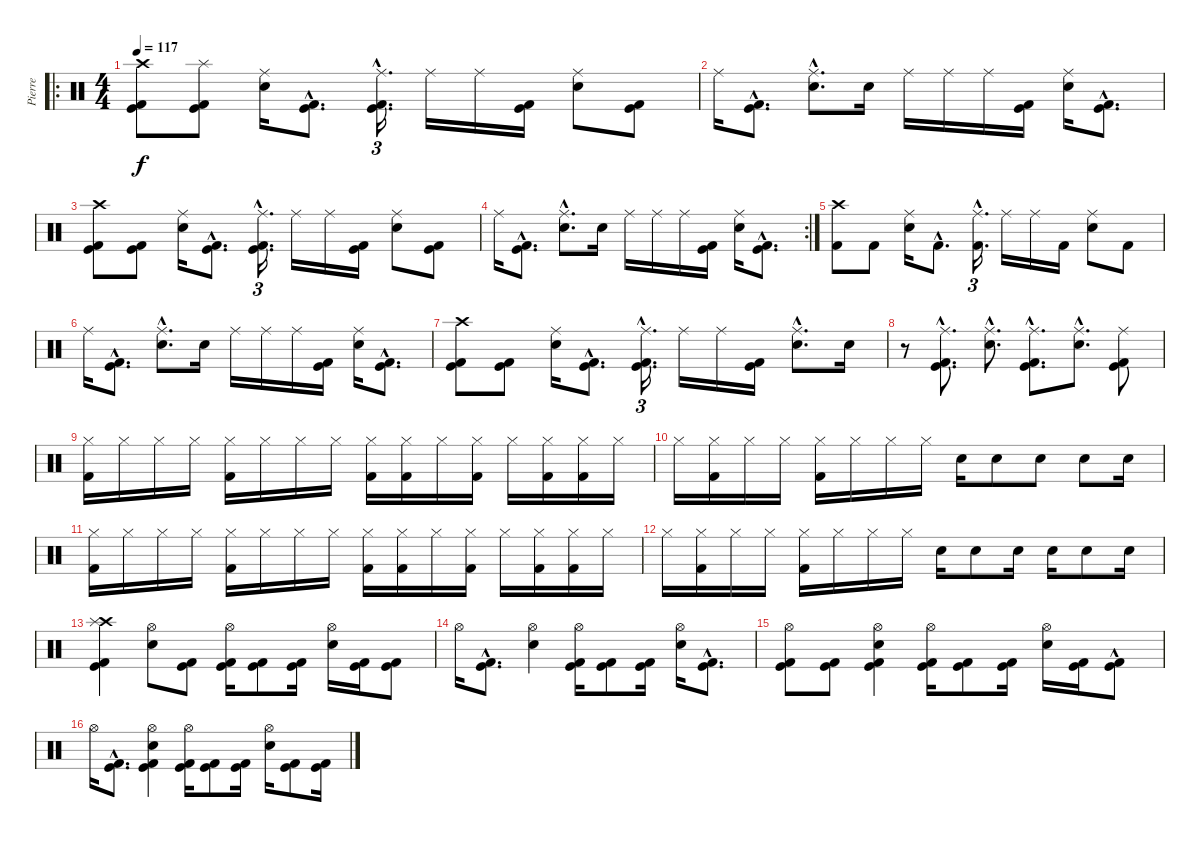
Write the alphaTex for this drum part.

\track ("Pierre" "Pierre") {instrument percussion}
\staff {score}
\articulation defaults
\ro
\ts (4 4)
\tempo 117
\clef neutral
\ks c
("Crash high (hit)" "Kick (hit)" "Kick (hit) 2").8{dy f} ("Splash (hit)" "Kick (hit)" "Kick (hit) 2").8 ("Ride (middle)" "Electric Snare (hit)").16 ("Kick (hit)"{hac} "Kick (hit) 2"{hac}).8{d} ("Ride (middle)"{hac} "Kick (hit)"{hac} "Kick (hit) 2"{hac}).16{d tu (3 2)} "Ride (middle)".16 "Ride (middle)".16 ("Kick (hit)" "Kick (hit) 2").16 ("Ride (middle)" "Electric Snare (hit)").8 ("Kick (hit)" "Kick (hit) 2").8 |
"Ride (middle)".16 ("Kick (hit)"{hac} "Kick (hit) 2"{hac}).8{d} ("Ride (middle)"{hac} "Electric Snare (hit)"{hac}).8{d} "Electric Snare (hit)".16 "Ride (middle)".16 "Ride (middle)".16 "Ride (middle)".16 ("Kick (hit)" "Kick (hit) 2").16 ("Ride (middle)" "Electric Snare (hit)").16 ("Kick (hit)"{hac} "Kick (hit) 2"{hac}).8{d} |
("Crash high (hit)" "Kick (hit)" "Kick (hit) 2").8 ("Kick (hit)" "Kick (hit) 2").8 ("Ride (middle)" "Electric Snare (hit)").16 ("Kick (hit)"{hac} "Kick (hit) 2"{hac}).8{d} ("Ride (middle)"{hac} "Kick (hit)"{hac} "Kick (hit) 2"{hac}).16{d tu (3 2)} "Ride (middle)".16 "Ride (middle)".16 ("Kick (hit)" "Kick (hit) 2").16 ("Ride (middle)" "Electric Snare (hit)").8 ("Kick (hit)" "Kick (hit) 2").8 |
\rc 2 "Ride (middle)".16
("Kick (hit)"{hac} "Kick (hit) 2"{hac}).8{d} ("Ride (middle)"{hac} "Electric Snare (hit)"{hac}).8{d} "Electric Snare (hit)".16 "Ride (middle)".16 "Ride (middle)".16 "Ride (middle)".16 ("Kick (hit)" "Kick (hit) 2").16 ("Ride (middle)" "Electric Snare (hit)").16 ("Kick (hit)"{hac} "Kick (hit) 2"{hac}).8{d} |
("Crash high (hit)" "Kick (hit) 2").8 "Kick (hit) 2".8 ("Ride (middle)" "Electric Snare (hit)").16 "Kick (hit) 2"{hac}.8{d} ("Ride (middle)"{hac} "Kick (hit) 2"{hac}).16{d tu (3 2)} "Ride (middle)".16 "Ride (middle)".16 "Kick (hit) 2".16 ("Ride (middle)" "Electric Snare (hit)").8 "Kick (hit) 2".8 |
"Ride (middle)".16 ("Kick (hit)"{hac} "Kick (hit) 2"{hac}).8{d} ("Ride (middle)"{hac} "Electric Snare (hit)"{hac}).8{d} "Electric Snare (hit)".16 "Ride (middle)".16 "Ride (middle)".16 "Ride (middle)".16 ("Kick (hit)" "Kick (hit) 2").16 ("Ride (middle)" "Electric Snare (hit)").16 ("Kick (hit)"{hac} "Kick (hit) 2"{hac}).8{d} |
("Crash high (hit)" "Kick (hit)" "Kick (hit) 2").8 ("Kick (hit)" "Kick (hit) 2").8 ("Ride (middle)" "Electric Snare (hit)").16 ("Kick (hit)"{hac} "Kick (hit) 2"{hac}).8{d} ("Ride (middle)"{hac} "Kick (hit)"{hac} "Kick (hit) 2"{hac}).16{d tu (3 2)} "Ride (middle)".16 "Ride (middle)".16 ("Kick (hit)" "Kick (hit) 2").16 ("Ride (middle)"{hac} "Electric Snare (hit)"{hac}).8{d} "Electric Snare (hit)".16 |
r.8 ("Ride (middle)"{hac} "Kick (hit)"{hac} "Kick (hit) 2"{hac}).8{d} ("Ride (middle)"{hac} "Electric Snare (hit)"{hac}).8{d} ("Ride (middle)"{hac} "Kick (hit)"{hac} "Kick (hit) 2"{hac}).8{d} ("Ride (middle)"{hac} "Electric Snare (hit)"{hac}).8{d} ("Ride (middle)" "Kick (hit)" "Kick (hit) 2").8 |
("Hi-Hat (closed)" "Kick (hit) 2").16 "Hi-Hat (closed)".16 "Hi-Hat (closed)".16 "Hi-Hat (closed)".16 ("Hi-Hat (closed)" "Kick (hit) 2").16 "Hi-Hat (closed)".16 "Hi-Hat (closed)".16 "Hi-Hat (closed)".16 ("Hi-Hat (closed)" "Kick (hit) 2").16 ("Hi-Hat (closed)" "Kick (hit) 2").16 "Hi-Hat (closed)".16 ("Hi-Hat (closed)" "Kick (hit) 2").16 "Hi-Hat (closed)".16 ("Hi-Hat (closed)" "Kick (hit) 2").16 ("Hi-Hat (closed)" "Kick (hit) 2").16 "Hi-Hat (closed)".16 |
"Hi-Hat (closed)".16 ("Hi-Hat (closed)" "Kick (hit) 2").16 "Hi-Hat (closed)".16 "Hi-Hat (closed)".16 ("Hi-Hat (closed)" "Kick (hit) 2").16 "Hi-Hat (closed)".16 "Hi-Hat (closed)".16 "Hi-Hat (closed)".16 "Electric Snare (hit)".16 "Electric Snare (hit)".8 "Electric Snare (hit)".8 "Electric Snare (hit)".8 "Electric Snare (hit)".16 |
("Hi-Hat (closed)" "Kick (hit) 2").16 "Hi-Hat (closed)".16 "Hi-Hat (closed)".16 "Hi-Hat (closed)".16 ("Hi-Hat (closed)" "Kick (hit) 2").16 "Hi-Hat (closed)".16 "Hi-Hat (closed)".16 "Hi-Hat (closed)".16 ("Hi-Hat (closed)" "Kick (hit) 2").16 ("Hi-Hat (closed)" "Kick (hit) 2").16 "Hi-Hat (closed)".16 ("Hi-Hat (closed)" "Kick (hit) 2").16 "Hi-Hat (closed)".16 ("Hi-Hat (closed)" "Kick (hit) 2").16 ("Hi-Hat (closed)" "Kick (hit) 2").16 "Hi-Hat (closed)".16 |
"Hi-Hat (closed)".16 ("Hi-Hat (closed)" "Kick (hit) 2").16 "Hi-Hat (closed)".16 "Hi-Hat (closed)".16 ("Hi-Hat (closed)" "Kick (hit) 2").16 "Hi-Hat (closed)".16 "Hi-Hat (closed)".16 "Hi-Hat (closed)".16 "Electric Snare (hit)".16 "Electric Snare (hit)".8 "Electric Snare (hit)".16 "Electric Snare (hit)".16 "Electric Snare (hit)".8 "Electric Snare (hit)".16 |
("Crash high (hit)" "Splash (hit)" "Kick (hit)" "Kick (hit) 2").4 ("Hi-Hat (open)" "Electric Snare (hit)").8 ("Kick (hit)" "Kick (hit) 2").8 ("Hi-Hat (open)" "Kick (hit)" "Kick (hit) 2").16 ("Kick (hit)" "Kick (hit) 2").8 ("Kick (hit)" "Kick (hit) 2").16 ("Hi-Hat (open)" "Electric Snare (hit)").16 ("Kick (hit)" "Kick (hit) 2").16 ("Kick (hit)" "Kick (hit) 2").8 |
"Hi-Hat (open)".16 ("Kick (hit)"{hac} "Kick (hit) 2"{hac}).8{d} ("Hi-Hat (open)" "Electric Snare (hit)").4 ("Hi-Hat (open)" "Kick (hit)" "Kick (hit) 2").16 ("Kick (hit)" "Kick (hit) 2").8 ("Kick (hit)" "Kick (hit) 2").16 ("Hi-Hat (open)" "Electric Snare (hit)").16 ("Kick (hit)"{hac} "Kick (hit) 2"{hac}).8{d} |
("Hi-Hat (open)" "Kick (hit)" "Kick (hit) 2").8 ("Kick (hit)" "Kick (hit) 2").8 ("Hi-Hat (open)" "Kick (hit)" "Electric Snare (hit)" "Kick (hit) 2").4 ("Hi-Hat (open)" "Kick (hit)" "Kick (hit) 2").16 ("Kick (hit)" "Kick (hit) 2").8 ("Kick (hit)" "Kick (hit) 2").16 ("Hi-Hat (open)" "Electric Snare (hit)").16 ("Kick (hit)" "Kick (hit) 2").16 ("Kick (hit)" "Kick (hit) 2"{hac}).8 |
"Hi-Hat (open)".16 ("Kick (hit)"{hac} "Kick (hit) 2"{hac}).8{d} ("Hi-Hat (open)" "Kick (hit)" "Electric Snare (hit)" "Kick (hit) 2").4 ("Hi-Hat (open)" "Kick (hit)" "Kick (hit) 2").16 ("Kick (hit)" "Kick (hit) 2").8 ("Kick (hit)" "Kick (hit) 2").16 ("Hi-Hat (open)" "Electric Snare (hit)").16 ("Kick (hit)" "Kick (hit) 2").8 ("Kick (hit)" "Kick (hit) 2").16
